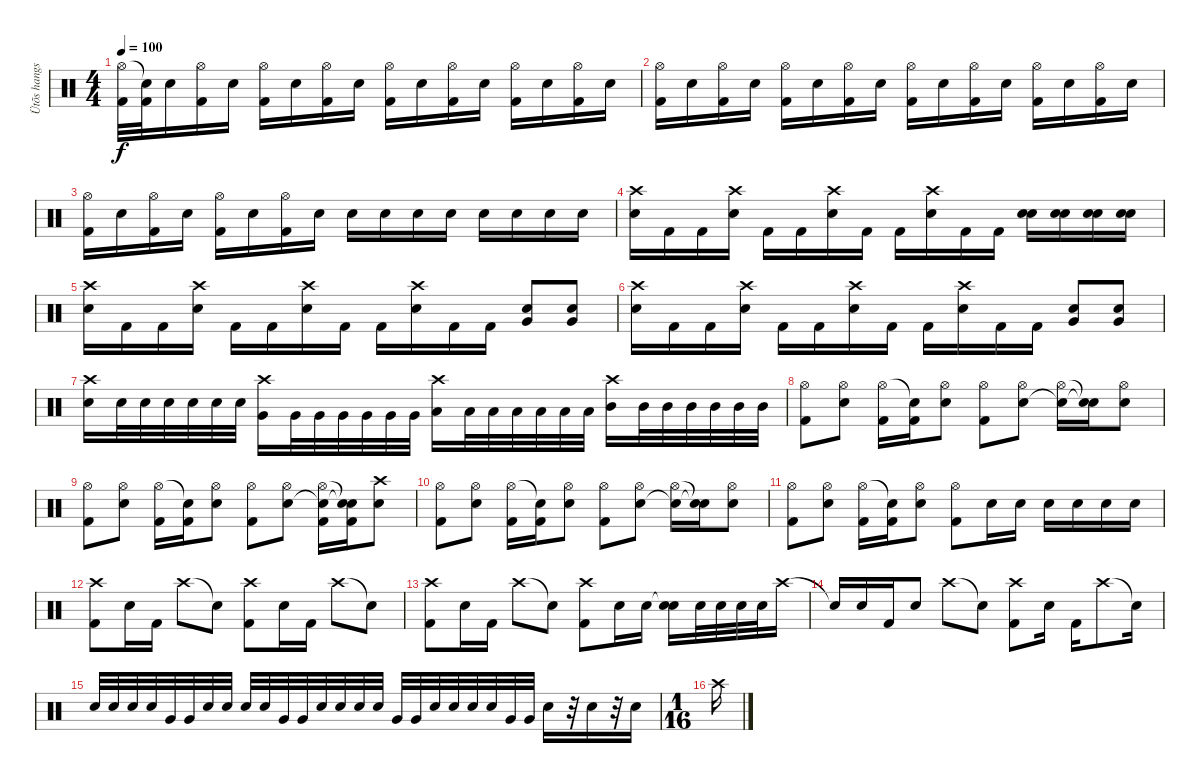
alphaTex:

\track ("Ütõs hangszer" "Ütõs hangs") {instrument percussion}
\staff {score}
\articulation defaults
\ts (4 4)
\tempo 100
\clef neutral
\ks c
("Hi-Hat (open)" "Kick (hit) 2").32{dy f} ("Snare (hit)"{t} "Kick (hit) 2").32 "Electric Snare (hit)".16 ("Hi-Hat (open)" "Kick (hit) 2").16 "Electric Snare (hit)".16 ("Hi-Hat (open)" "Kick (hit) 2").16 "Electric Snare (hit)".16 ("Hi-Hat (open)" "Kick (hit) 2").16 "Electric Snare (hit)".16 ("Hi-Hat (open)" "Kick (hit) 2").16 "Electric Snare (hit)".16 ("Hi-Hat (open)" "Kick (hit) 2").16 "Electric Snare (hit)".16 ("Hi-Hat (open)" "Kick (hit) 2").16 "Electric Snare (hit)".16 ("Hi-Hat (open)" "Kick (hit) 2").16 "Electric Snare (hit)".16 |
("Hi-Hat (open)" "Kick (hit) 2").16 "Electric Snare (hit)".16 ("Hi-Hat (open)" "Kick (hit) 2").16 "Electric Snare (hit)".16 ("Hi-Hat (open)" "Kick (hit) 2").16 "Electric Snare (hit)".16 ("Hi-Hat (open)" "Kick (hit) 2").16 "Electric Snare (hit)".16 ("Hi-Hat (open)" "Kick (hit) 2").16 "Electric Snare (hit)".16 ("Hi-Hat (open)" "Kick (hit) 2").16 "Electric Snare (hit)".16 ("Hi-Hat (open)" "Kick (hit) 2").16 "Electric Snare (hit)".16 ("Hi-Hat (open)" "Kick (hit) 2").16 "Electric Snare (hit)".16 |
("Hi-Hat (open)" "Kick (hit) 2").16 "Electric Snare (hit)".16 ("Hi-Hat (open)" "Kick (hit) 2").16 "Electric Snare (hit)".16 ("Hi-Hat (open)" "Kick (hit) 2").16 "Electric Snare (hit)".16 ("Hi-Hat (open)" "Kick (hit) 2").16 "Electric Snare (hit)".16 "Electric Snare (hit)".16 "Electric Snare (hit)".16 "Electric Snare (hit)".16 "Electric Snare (hit)".16 "Electric Snare (hit)".16 "Electric Snare (hit)".16 "Electric Snare (hit)".16 "Electric Snare (hit)".16 |
("Crash high (hit)" "Electric Snare (hit)").16 "Kick (hit) 2".16 "Kick (hit) 2".16 ("Crash high (hit)" "Electric Snare (hit)").16 "Kick (hit) 2".16 "Kick (hit) 2".16 ("Crash high (hit)" "Electric Snare (hit)").16 "Kick (hit) 2".16 "Kick (hit) 2".16 ("Crash high (hit)" "Electric Snare (hit)").16 "Kick (hit) 2".16 "Kick (hit) 2".16 ("Electric Snare (hit)" "Electric Snare (hit)").16 ("Electric Snare (hit)" "Electric Snare (hit)").16 ("Electric Snare (hit)" "Electric Snare (hit)").16 ("Electric Snare (hit)" "Electric Snare (hit)").16 |
("Crash high (hit)" "Electric Snare (hit)").16 "Kick (hit) 2".16 "Kick (hit) 2".16 ("Crash high (hit)" "Electric Snare (hit)").16 "Kick (hit) 2".16 "Kick (hit) 2".16 ("Crash high (hit)" "Electric Snare (hit)").16 "Kick (hit) 2".16 "Kick (hit) 2".16 ("Crash high (hit)" "Electric Snare (hit)").16 "Kick (hit) 2".16 "Kick (hit) 2".16 ("Very Low Tom (hit)" "Electric Snare (hit)").8 ("Very Low Tom (hit)" "Electric Snare (hit)").8 |
("Crash high (hit)" "Electric Snare (hit)").16 "Kick (hit) 2".16 "Kick (hit) 2".16 ("Crash high (hit)" "Electric Snare (hit)").16 "Kick (hit) 2".16 "Kick (hit) 2".16 ("Crash high (hit)" "Electric Snare (hit)").16 "Kick (hit) 2".16 "Kick (hit) 2".16 ("Crash high (hit)" "Electric Snare (hit)").16 "Kick (hit) 2".16 "Kick (hit) 2".16 ("Very Low Tom (hit)" "Electric Snare (hit)").8 ("Very Low Tom (hit)" "Electric Snare (hit)").8 |
("Crash high (hit)" "Electric Snare (hit)").16 "Electric Snare (hit)".32 "Electric Snare (hit)".32 "Electric Snare (hit)".32 "Electric Snare (hit)".32 "Electric Snare (hit)".32 "Electric Snare (hit)".32 ("Crash high (hit)" "Very Low Tom (hit)").16 "Very Low Tom (hit)".32 "Very Low Tom (hit)".32 "Very Low Tom (hit)".32 "Very Low Tom (hit)".32 "Very Low Tom (hit)".32 "Very Low Tom (hit)".32 ("Crash high (hit)" "Low Tom (hit)").16 "Low Tom (hit)".32 "Low Tom (hit)".32 "Low Tom (hit)".32 "Low Tom (hit)".32 "Low Tom (hit)".32 "Low Tom (hit)".32 ("Crash high (hit)" "Mid Tom (hit)").16 "Mid Tom (hit)".32 "Mid Tom (hit)".32 "Mid Tom (hit)".32 "Mid Tom (hit)".32 "Mid Tom (hit)".32 "Mid Tom (hit)".32 |
("Hi-Hat (open)" "Kick (hit) 2").8 ("Hi-Hat (open)" "Electric Snare (hit)").8 ("Hi-Hat (open)" "Kick (hit) 2").16 ("Snare (hit)"{t} "Kick (hit) 2").16 ("Hi-Hat (open)" "Electric Snare (hit)").8 ("Hi-Hat (open)" "Kick (hit) 2").8 ("Hi-Hat (open)" "Electric Snare (hit)").8 ("Hi-Hat (open)" "Snare (hit)"{t}).16 ("Snare (hit)"{t} "Snare (hit)"{t}).16 ("Hi-Hat (open)" "Electric Snare (hit)").8 |
("Hi-Hat (open)" "Kick (hit) 2").8 ("Hi-Hat (open)" "Electric Snare (hit)").8 ("Hi-Hat (open)" "Kick (hit) 2").16 ("Snare (hit)"{t} "Kick (hit) 2").16 ("Hi-Hat (open)" "Electric Snare (hit)").8 ("Hi-Hat (open)" "Kick (hit) 2").8 ("Hi-Hat (open)" "Electric Snare (hit)").8 ("Hi-Hat (open)" "Snare (hit)"{t} "Kick (hit) 2").16 ("Snare (hit)"{t} "Snare (hit)"{t} "Kick (hit) 2").16 ("Crash high (hit)" "Electric Snare (hit)").8 |
("Hi-Hat (open)" "Kick (hit) 2").8 ("Hi-Hat (open)" "Electric Snare (hit)").8 ("Hi-Hat (open)" "Kick (hit) 2").16 ("Snare (hit)"{t} "Kick (hit) 2").16 ("Hi-Hat (open)" "Electric Snare (hit)").8 ("Hi-Hat (open)" "Kick (hit) 2").8 ("Hi-Hat (open)" "Electric Snare (hit)").8 ("Hi-Hat (open)" "Snare (hit)"{t}).16 ("Snare (hit)"{t} "Snare (hit)"{t}).16 ("Hi-Hat (open)" "Electric Snare (hit)").8 |
("Hi-Hat (open)" "Kick (hit) 2").8 ("Hi-Hat (open)" "Electric Snare (hit)").8 ("Hi-Hat (open)" "Kick (hit) 2").16 ("Snare (hit)"{t} "Kick (hit) 2").16 ("Hi-Hat (open)" "Electric Snare (hit)").8 ("Hi-Hat (open)" "Kick (hit) 2").8 "Electric Snare (hit)".16 "Electric Snare (hit)".16 "Electric Snare (hit)".16 "Electric Snare (hit)".16 "Electric Snare (hit)".16 "Electric Snare (hit)".16 |
("Crash high (hit)" "Kick (hit) 2").8 "Electric Snare (hit)".16 "Kick (hit) 2".16 "Crash high (hit)".8 "Snare (hit)"{t}.8 ("Crash high (hit)" "Kick (hit) 2").8 "Electric Snare (hit)".16 "Kick (hit) 2".16 "Crash high (hit)".8 "Snare (hit)"{t}.8 |
("Crash high (hit)" "Kick (hit) 2").8 "Electric Snare (hit)".16 "Kick (hit) 2".16 "Crash high (hit)".8 "Snare (hit)"{t}.8 ("Crash high (hit)" "Kick (hit) 2").8 "Electric Snare (hit)".16 "Electric Snare (hit)".16 ("Snare (hit)"{t} "Electric Snare (hit)").16 "Electric Snare (hit)".32 "Electric Snare (hit)".32 "Electric Snare (hit)".32 "Electric Snare (hit)".32 "Crash high (hit)".16 |
"Snare (hit)"{t}.16 "Electric Snare (hit)".16 "Kick (hit) 2".16 "Electric Snare (hit)".8 "Crash high (hit)".8 "Snare (hit)"{t}.8 ("Crash high (hit)" "Kick (hit) 2").8 "Electric Snare (hit)".16 "Kick (hit) 2".16 "Crash high (hit)".8 "Snare (hit)"{t}.16 |
"Electric Snare (hit)".32 "Electric Snare (hit)".32 "Electric Snare (hit)".32 "Electric Snare (hit)".32 "Very Low Tom (hit)".32 "Very Low Tom (hit)".32 "Electric Snare (hit)".32 "Electric Snare (hit)".32 "Electric Snare (hit)".32 "Electric Snare (hit)".32 "Very Low Tom (hit)".32 "Very Low Tom (hit)".32 "Electric Snare (hit)".32 "Electric Snare (hit)".32 "Electric Snare (hit)".32 "Electric Snare (hit)".32 "Very Low Tom (hit)".32 "Very Low Tom (hit)".32 "Electric Snare (hit)".32 "Electric Snare (hit)".32 "Electric Snare (hit)".32 "Electric Snare (hit)".32 "Very Low Tom (hit)".32 "Very Low Tom (hit)".32 "Electric Snare (hit)".16 r.32 "Electric Snare (hit)".16 r.32 "Electric Snare (hit)".16 |
\ts (1 16)
"Crash high (hit)".16
